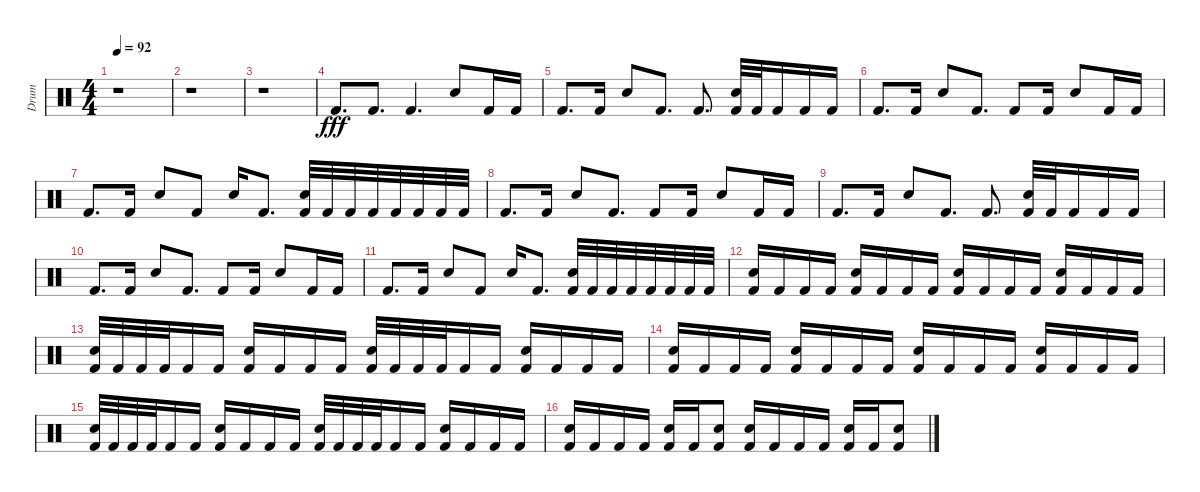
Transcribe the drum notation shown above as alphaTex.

\track ("Drum" "Drum") {instrument percussion}
\staff {score}
\articulation defaults
\ts (4 4)
\tempo 92
\clef neutral
\ks c
r.1{dy fff} |
r.1 |
r.1 |
"Kick (hit) 2".8{d} "Kick (hit) 2".8{d} "Kick (hit) 2".4{d} "Electric Snare (hit)".8 "Kick (hit) 2".16 "Kick (hit) 2".16 |
"Kick (hit) 2".8{d} "Kick (hit) 2".16 "Electric Snare (hit)".8 "Kick (hit) 2".8{d} "Kick (hit) 2".8{d} ("Electric Snare (hit)" "Kick (hit) 2").32 "Kick (hit) 2".32 "Kick (hit) 2".16 "Kick (hit) 2".16 "Kick (hit) 2".16 |
"Kick (hit) 2".8{d} "Kick (hit) 2".16 "Electric Snare (hit)".8 "Kick (hit) 2".8{d} "Kick (hit) 2".8 "Kick (hit) 2".16 "Electric Snare (hit)".8 "Kick (hit) 2".16 "Kick (hit) 2".16 |
"Kick (hit) 2".8{d} "Kick (hit) 2".16 "Electric Snare (hit)".8 "Kick (hit) 2".8 "Electric Snare (hit)".16 "Kick (hit) 2".8{d} ("Electric Snare (hit)" "Kick (hit) 2").32 "Kick (hit) 2".32 "Kick (hit) 2".32 "Kick (hit) 2".32 "Kick (hit) 2".32 "Kick (hit) 2".32 "Kick (hit) 2".32 "Kick (hit) 2".32 |
"Kick (hit) 2".8{d} "Kick (hit) 2".16 "Electric Snare (hit)".8 "Kick (hit) 2".8{d} "Kick (hit) 2".8 "Kick (hit) 2".16 "Electric Snare (hit)".8 "Kick (hit) 2".16 "Kick (hit) 2".16 |
"Kick (hit) 2".8{d} "Kick (hit) 2".16 "Electric Snare (hit)".8 "Kick (hit) 2".8{d} "Kick (hit) 2".8{d} ("Electric Snare (hit)" "Kick (hit) 2").32 "Kick (hit) 2".32 "Kick (hit) 2".16 "Kick (hit) 2".16 "Kick (hit) 2".16 |
"Kick (hit) 2".8{d} "Kick (hit) 2".16 "Electric Snare (hit)".8 "Kick (hit) 2".8{d} "Kick (hit) 2".8 "Kick (hit) 2".16 "Electric Snare (hit)".8 "Kick (hit) 2".16 "Kick (hit) 2".16 |
"Kick (hit) 2".8{d} "Kick (hit) 2".16 "Electric Snare (hit)".8 "Kick (hit) 2".8 "Electric Snare (hit)".16 "Kick (hit) 2".8{d} ("Electric Snare (hit)" "Kick (hit) 2").32 "Kick (hit) 2".32 "Kick (hit) 2".32 "Kick (hit) 2".32 "Kick (hit) 2".32 "Kick (hit) 2".32 "Kick (hit) 2".32 "Kick (hit) 2".32 |
("Electric Snare (hit)" "Kick (hit) 2").16 "Kick (hit) 2".16 "Kick (hit) 2".16 "Kick (hit) 2".16 ("Electric Snare (hit)" "Kick (hit) 2").16 "Kick (hit) 2".16 "Kick (hit) 2".16 "Kick (hit) 2".16 ("Electric Snare (hit)" "Kick (hit) 2").16 "Kick (hit) 2".16 "Kick (hit) 2".16 "Kick (hit) 2".16 ("Electric Snare (hit)" "Kick (hit) 2").16 "Kick (hit) 2".16 "Kick (hit) 2".16 "Kick (hit) 2".16 |
("Electric Snare (hit)" "Kick (hit) 2").32 "Kick (hit) 2".32 "Kick (hit) 2".32 "Kick (hit) 2".32 "Kick (hit) 2".16 "Kick (hit) 2".16 ("Electric Snare (hit)" "Kick (hit) 2").16 "Kick (hit) 2".16 "Kick (hit) 2".16 "Kick (hit) 2".16 ("Electric Snare (hit)" "Kick (hit) 2").32 "Kick (hit) 2".32 "Kick (hit) 2".32 "Kick (hit) 2".32 "Kick (hit) 2".16 "Kick (hit) 2".16 ("Electric Snare (hit)" "Kick (hit) 2").16 "Kick (hit) 2".16 "Kick (hit) 2".16 "Kick (hit) 2".16 |
("Electric Snare (hit)" "Kick (hit) 2").16 "Kick (hit) 2".16 "Kick (hit) 2".16 "Kick (hit) 2".16 ("Electric Snare (hit)" "Kick (hit) 2").16 "Kick (hit) 2".16 "Kick (hit) 2".16 "Kick (hit) 2".16 ("Electric Snare (hit)" "Kick (hit) 2").16 "Kick (hit) 2".16 "Kick (hit) 2".16 "Kick (hit) 2".16 ("Electric Snare (hit)" "Kick (hit) 2").16 "Kick (hit) 2".16 "Kick (hit) 2".16 "Kick (hit) 2".16 |
("Electric Snare (hit)" "Kick (hit) 2").32 "Kick (hit) 2".32 "Kick (hit) 2".32 "Kick (hit) 2".32 "Kick (hit) 2".16 "Kick (hit) 2".16 ("Electric Snare (hit)" "Kick (hit) 2").16 "Kick (hit) 2".16 "Kick (hit) 2".16 "Kick (hit) 2".16 ("Electric Snare (hit)" "Kick (hit) 2").32 "Kick (hit) 2".32 "Kick (hit) 2".32 "Kick (hit) 2".32 "Kick (hit) 2".16 "Kick (hit) 2".16 ("Electric Snare (hit)" "Kick (hit) 2").16 "Kick (hit) 2".16 "Kick (hit) 2".16 "Kick (hit) 2".16 |
("Electric Snare (hit)" "Kick (hit) 2").16 "Kick (hit) 2".16 "Kick (hit) 2".16 "Kick (hit) 2".16 ("Electric Snare (hit)" "Kick (hit) 2").16 "Kick (hit) 2".16 ("Electric Snare (hit)" "Kick (hit) 2").8 ("Electric Snare (hit)" "Kick (hit) 2").16 "Kick (hit) 2".16 "Kick (hit) 2".16 "Kick (hit) 2".16 ("Electric Snare (hit)" "Kick (hit) 2").16 "Kick (hit) 2".16 ("Electric Snare (hit)" "Kick (hit) 2").8
